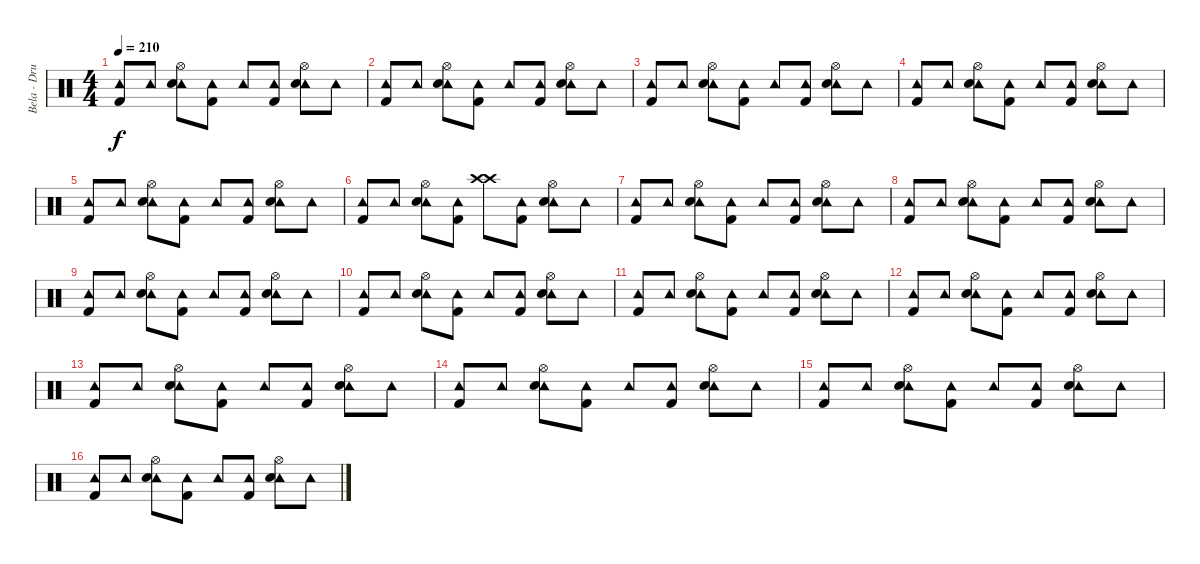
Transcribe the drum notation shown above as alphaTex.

\track ("Bela - Drums" "Bela - Dru") {instrument percussion}
\staff {score}
\articulation defaults
\ts (4 4)
\tempo 210
\clef neutral
\ks c
("Tambourine (hit)" "Kick (hit) 2").8{dy f} "Tambourine (hit)".8 ("Tambourine (hit)" "Electric Snare (hit)" "Hi-Hat (open)").8 ("Tambourine (hit)" "Kick (hit) 2").8 "Tambourine (hit)".8 ("Tambourine (hit)" "Kick (hit) 2").8 ("Tambourine (hit)" "Electric Snare (hit)" "Hi-Hat (open)").8 "Tambourine (hit)".8 |
("Tambourine (hit)" "Kick (hit) 2").8 "Tambourine (hit)".8 ("Tambourine (hit)" "Electric Snare (hit)" "Hi-Hat (open)").8 ("Tambourine (hit)" "Kick (hit) 2").8 "Tambourine (hit)".8 ("Tambourine (hit)" "Kick (hit) 2").8 ("Tambourine (hit)" "Electric Snare (hit)" "Hi-Hat (open)").8 "Tambourine (hit)".8 |
("Tambourine (hit)" "Kick (hit) 2").8 "Tambourine (hit)".8 ("Tambourine (hit)" "Electric Snare (hit)" "Hi-Hat (open)").8 ("Tambourine (hit)" "Kick (hit) 2").8 "Tambourine (hit)".8 ("Tambourine (hit)" "Kick (hit) 2").8 ("Tambourine (hit)" "Electric Snare (hit)" "Hi-Hat (open)").8 "Tambourine (hit)".8 |
("Tambourine (hit)" "Kick (hit) 2").8 "Tambourine (hit)".8 ("Tambourine (hit)" "Electric Snare (hit)" "Hi-Hat (open)").8 ("Tambourine (hit)" "Kick (hit) 2").8 "Tambourine (hit)".8 ("Tambourine (hit)" "Kick (hit) 2").8 ("Tambourine (hit)" "Electric Snare (hit)" "Hi-Hat (open)").8 "Tambourine (hit)".8 |
("Tambourine (hit)" "Kick (hit) 2").8 "Tambourine (hit)".8 ("Tambourine (hit)" "Electric Snare (hit)" "Hi-Hat (open)").8 ("Tambourine (hit)" "Kick (hit) 2").8 "Tambourine (hit)".8 ("Tambourine (hit)" "Kick (hit) 2").8 ("Tambourine (hit)" "Electric Snare (hit)" "Hi-Hat (open)").8 "Tambourine (hit)".8 |
("Tambourine (hit)" "Kick (hit) 2").8 "Tambourine (hit)".8 ("Tambourine (hit)" "Electric Snare (hit)" "Hi-Hat (open)").8 ("Tambourine (hit)" "Kick (hit) 2").8 ("Crash high (hit)" "Crash high (hit)").8 ("Tambourine (hit)" "Kick (hit) 2").8 ("Tambourine (hit)" "Electric Snare (hit)" "Hi-Hat (open)").8 "Tambourine (hit)".8 |
("Tambourine (hit)" "Kick (hit) 2").8 "Tambourine (hit)".8 ("Tambourine (hit)" "Electric Snare (hit)" "Hi-Hat (open)").8 ("Tambourine (hit)" "Kick (hit) 2").8 "Tambourine (hit)".8 ("Tambourine (hit)" "Kick (hit) 2").8 ("Tambourine (hit)" "Electric Snare (hit)" "Hi-Hat (open)").8 "Tambourine (hit)".8 |
("Tambourine (hit)" "Kick (hit) 2").8 "Tambourine (hit)".8 ("Tambourine (hit)" "Electric Snare (hit)" "Hi-Hat (open)").8 ("Tambourine (hit)" "Kick (hit) 2").8 "Tambourine (hit)".8 ("Tambourine (hit)" "Kick (hit) 2").8 ("Tambourine (hit)" "Electric Snare (hit)" "Hi-Hat (open)").8 "Tambourine (hit)".8 |
("Tambourine (hit)" "Kick (hit) 2").8 "Tambourine (hit)".8 ("Tambourine (hit)" "Electric Snare (hit)" "Hi-Hat (open)").8 ("Tambourine (hit)" "Kick (hit) 2").8 "Tambourine (hit)".8 ("Tambourine (hit)" "Kick (hit) 2").8 ("Tambourine (hit)" "Electric Snare (hit)" "Hi-Hat (open)").8 "Tambourine (hit)".8 |
("Tambourine (hit)" "Kick (hit) 2").8 "Tambourine (hit)".8 ("Tambourine (hit)" "Electric Snare (hit)" "Hi-Hat (open)").8 ("Tambourine (hit)" "Kick (hit) 2").8 "Tambourine (hit)".8 ("Tambourine (hit)" "Kick (hit) 2").8 ("Tambourine (hit)" "Electric Snare (hit)" "Hi-Hat (open)").8 "Tambourine (hit)".8 |
("Tambourine (hit)" "Kick (hit) 2").8 "Tambourine (hit)".8 ("Tambourine (hit)" "Electric Snare (hit)" "Hi-Hat (open)").8 ("Tambourine (hit)" "Kick (hit) 2").8 "Tambourine (hit)".8 ("Tambourine (hit)" "Kick (hit) 2").8 ("Tambourine (hit)" "Electric Snare (hit)" "Hi-Hat (open)").8 "Tambourine (hit)".8 |
("Tambourine (hit)" "Kick (hit) 2").8 "Tambourine (hit)".8 ("Tambourine (hit)" "Electric Snare (hit)" "Hi-Hat (open)").8 ("Tambourine (hit)" "Kick (hit) 2").8 "Tambourine (hit)".8 ("Tambourine (hit)" "Kick (hit) 2").8 ("Tambourine (hit)" "Electric Snare (hit)" "Hi-Hat (open)").8 "Tambourine (hit)".8 |
("Tambourine (hit)" "Kick (hit) 2").8 "Tambourine (hit)".8 ("Tambourine (hit)" "Electric Snare (hit)" "Hi-Hat (open)").8 ("Tambourine (hit)" "Kick (hit) 2").8 "Tambourine (hit)".8 ("Tambourine (hit)" "Kick (hit) 2").8 ("Tambourine (hit)" "Electric Snare (hit)" "Hi-Hat (open)").8 "Tambourine (hit)".8 |
("Tambourine (hit)" "Kick (hit) 2").8 "Tambourine (hit)".8 ("Tambourine (hit)" "Electric Snare (hit)" "Hi-Hat (open)").8 ("Tambourine (hit)" "Kick (hit) 2").8 "Tambourine (hit)".8 ("Tambourine (hit)" "Kick (hit) 2").8 ("Tambourine (hit)" "Electric Snare (hit)" "Hi-Hat (open)").8 "Tambourine (hit)".8 |
("Tambourine (hit)" "Kick (hit) 2").8 "Tambourine (hit)".8 ("Tambourine (hit)" "Electric Snare (hit)" "Hi-Hat (open)").8 ("Tambourine (hit)" "Kick (hit) 2").8 "Tambourine (hit)".8 ("Tambourine (hit)" "Kick (hit) 2").8 ("Tambourine (hit)" "Electric Snare (hit)" "Hi-Hat (open)").8 "Tambourine (hit)".8 |
("Tambourine (hit)" "Kick (hit) 2").8 "Tambourine (hit)".8 ("Tambourine (hit)" "Electric Snare (hit)" "Hi-Hat (open)").8 ("Tambourine (hit)" "Kick (hit) 2").8 "Tambourine (hit)".8 ("Tambourine (hit)" "Kick (hit) 2").8 ("Tambourine (hit)" "Electric Snare (hit)" "Hi-Hat (open)").8 "Tambourine (hit)".8
